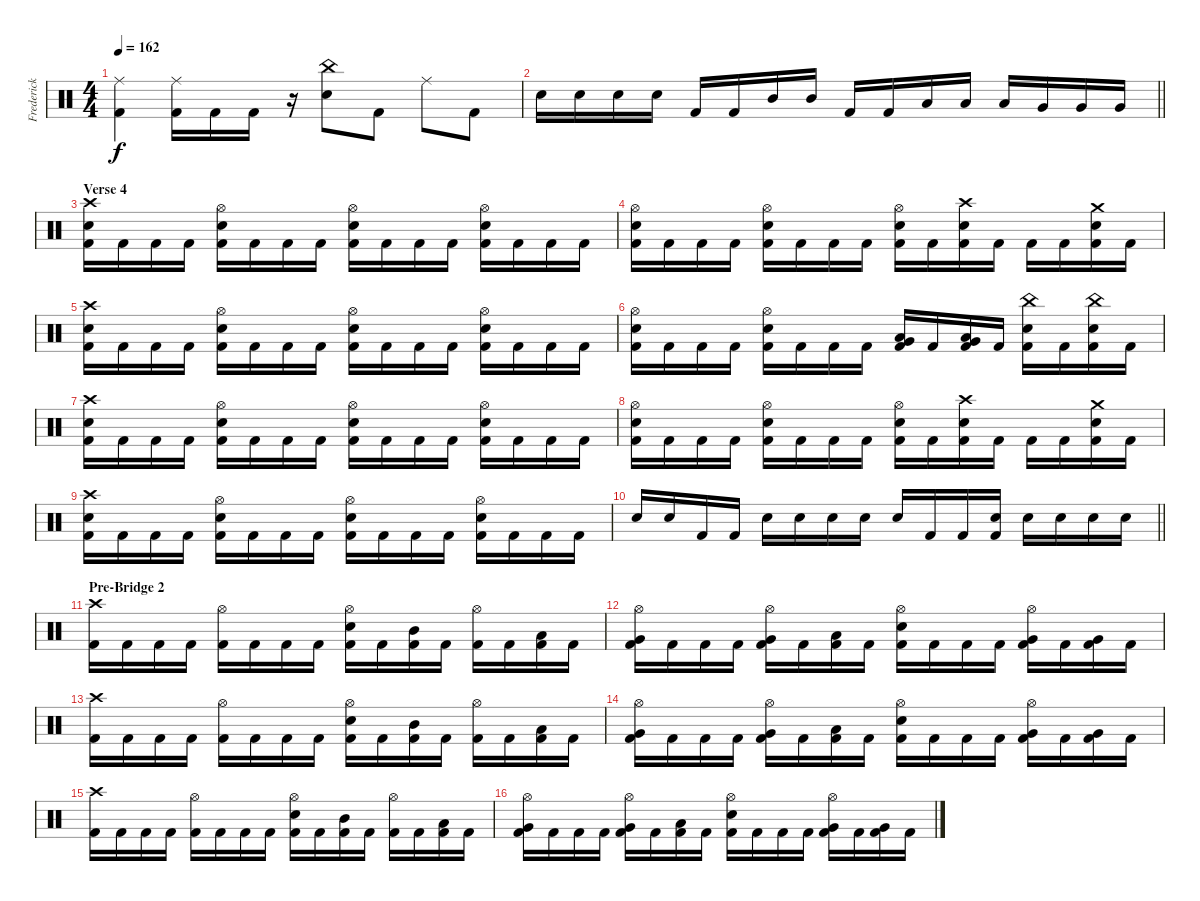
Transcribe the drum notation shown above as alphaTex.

\track ("Frederick Ehmke" "Frederick ") {instrument percussion}
\staff {score}
\articulation defaults
\ts (4 4)
\tempo 162
\clef neutral
\ks c
("Ride (middle)" "Kick (hit) 2").4{dy f} ("Ride (middle)" "Kick (hit) 2").16 "Kick (hit) 2".16 "Kick (hit) 2".16 r.16 ("Electric Snare (hit)" "China (hit)").8 "Kick (hit) 2".8 "Ride (middle)".8 "Kick (hit) 2".8 |
\barLineRight lightlight "Electric Snare (hit)".16 "Electric Snare (hit)".16{volume 10} "Electric Snare (hit)".16{volume 13} "Electric Snare (hit)".16{volume 10} "Kick (hit) 2".16{volume 13} "Kick (hit) 2".16 "Mid Tom (hit)".16 "Mid Tom (hit)".16 "Kick (hit) 2".16 "Kick (hit) 2".16 "Low Tom (hit)".16 "Low Tom (hit)".16 "Low Tom (hit)".16 "Very Low Tom (hit)".16 "Very Low Tom (hit)".16 "Very Low Tom (hit)".16
|
\section ("" "Verse 4")
("Electric Snare (hit)" "Crash high (hit)" "Kick (hit) 2").16 "Kick (hit) 2".16 "Kick (hit) 2".16 "Kick (hit) 2".16 ("Electric Snare (hit)" "Hi-Hat (open)" "Kick (hit) 2").16 "Kick (hit) 2".16 "Kick (hit) 2".16 "Kick (hit) 2".16 ("Electric Snare (hit)" "Hi-Hat (open)" "Kick (hit) 2").16 "Kick (hit) 2".16 "Kick (hit) 2".16 "Kick (hit) 2".16 ("Electric Snare (hit)" "Hi-Hat (open)" "Kick (hit) 2").16 "Kick (hit) 2".16 "Kick (hit) 2".16 "Kick (hit) 2".16 |
("Electric Snare (hit)" "Hi-Hat (open)" "Kick (hit) 2").16 "Kick (hit) 2".16 "Kick (hit) 2".16 "Kick (hit) 2".16 ("Electric Snare (hit)" "Hi-Hat (open)" "Kick (hit) 2").16 "Kick (hit) 2".16 "Kick (hit) 2".16 "Kick (hit) 2".16 ("Electric Snare (hit)" "Hi-Hat (open)" "Kick (hit) 2").16 "Kick (hit) 2".16 ("Electric Snare (hit)" "Crash high (hit)" "Kick (hit) 2").16 "Kick (hit) 2".16 "Kick (hit) 2".16 "Kick (hit) 2".16 ("Electric Snare (hit)" "Crash medium (hit)" "Kick (hit) 2").16 "Kick (hit) 2".16 |
("Electric Snare (hit)" "Crash high (hit)" "Kick (hit) 2").16 "Kick (hit) 2".16 "Kick (hit) 2".16 "Kick (hit) 2".16 ("Electric Snare (hit)" "Hi-Hat (open)" "Kick (hit) 2").16 "Kick (hit) 2".16 "Kick (hit) 2".16 "Kick (hit) 2".16 ("Electric Snare (hit)" "Hi-Hat (open)" "Kick (hit) 2").16 "Kick (hit) 2".16 "Kick (hit) 2".16 "Kick (hit) 2".16 ("Electric Snare (hit)" "Hi-Hat (open)" "Kick (hit) 2").16 "Kick (hit) 2".16 "Kick (hit) 2".16 "Kick (hit) 2".16 |
("Electric Snare (hit)" "Hi-Hat (open)" "Kick (hit) 2").16 "Kick (hit) 2".16 "Kick (hit) 2".16 "Kick (hit) 2".16 ("Electric Snare (hit)" "Hi-Hat (open)" "Kick (hit) 2").16 "Kick (hit) 2".16 "Kick (hit) 2".16 "Kick (hit) 2".16 ("Low Tom (hit)" "Very Low Tom (hit)" "Kick (hit) 2").16 "Kick (hit) 2".16 ("Low Tom (hit)" "Very Low Tom (hit)" "Kick (hit) 2").16 "Kick (hit) 2".16 ("Electric Snare (hit)" "China (hit)" "Kick (hit) 2").16 "Kick (hit) 2".16 ("Electric Snare (hit)" "China (hit)" "Kick (hit) 2").16 "Kick (hit) 2".16 |
("Electric Snare (hit)" "Crash high (hit)" "Kick (hit) 2").16 "Kick (hit) 2".16 "Kick (hit) 2".16 "Kick (hit) 2".16 ("Electric Snare (hit)" "Hi-Hat (open)" "Kick (hit) 2").16 "Kick (hit) 2".16 "Kick (hit) 2".16 "Kick (hit) 2".16 ("Electric Snare (hit)" "Hi-Hat (open)" "Kick (hit) 2").16 "Kick (hit) 2".16 "Kick (hit) 2".16 "Kick (hit) 2".16 ("Electric Snare (hit)" "Hi-Hat (open)" "Kick (hit) 2").16 "Kick (hit) 2".16 "Kick (hit) 2".16 "Kick (hit) 2".16 |
("Electric Snare (hit)" "Hi-Hat (open)" "Kick (hit) 2").16 "Kick (hit) 2".16 "Kick (hit) 2".16 "Kick (hit) 2".16 ("Electric Snare (hit)" "Hi-Hat (open)" "Kick (hit) 2").16 "Kick (hit) 2".16 "Kick (hit) 2".16 "Kick (hit) 2".16 ("Electric Snare (hit)" "Hi-Hat (open)" "Kick (hit) 2").16 "Kick (hit) 2".16 ("Electric Snare (hit)" "Crash high (hit)" "Kick (hit) 2").16 "Kick (hit) 2".16 "Kick (hit) 2".16 "Kick (hit) 2".16 ("Electric Snare (hit)" "Crash medium (hit)" "Kick (hit) 2").16 "Kick (hit) 2".16 |
("Electric Snare (hit)" "Crash high (hit)" "Kick (hit) 2").16 "Kick (hit) 2".16 "Kick (hit) 2".16 "Kick (hit) 2".16 ("Electric Snare (hit)" "Hi-Hat (open)" "Kick (hit) 2").16 "Kick (hit) 2".16 "Kick (hit) 2".16 "Kick (hit) 2".16 ("Electric Snare (hit)" "Hi-Hat (open)" "Kick (hit) 2").16 "Kick (hit) 2".16 "Kick (hit) 2".16 "Kick (hit) 2".16 ("Electric Snare (hit)" "Hi-Hat (open)" "Kick (hit) 2").16 "Kick (hit) 2".16 "Kick (hit) 2".16 "Kick (hit) 2".16 |
\barLineRight lightlight "Electric Snare (hit)".16 "Electric Snare (hit)".16 "Kick (hit) 2".16 "Kick (hit) 2".16 "Electric Snare (hit)".16 "Electric Snare (hit)".16 "Electric Snare (hit)".16 "Electric Snare (hit)".16 "Electric Snare (hit)".16 "Kick (hit) 2".16 "Kick (hit) 2".16
("Electric Snare (hit)" "Kick (hit) 2").16 "Electric Snare (hit)".16 "Electric Snare (hit)".16 "Electric Snare (hit)".16 "Electric Snare (hit)".16 |
\section ("" "Pre-Bridge 2")
("Crash high (hit)" "Kick (hit) 2").16 "Kick (hit) 2".16 "Kick (hit) 2".16 "Kick (hit) 2".16 ("Hi-Hat (open)" "Kick (hit) 2").16 "Kick (hit) 2".16 "Kick (hit) 2".16 "Kick (hit) 2".16 ("Electric Snare (hit)" "Hi-Hat (open)" "Kick (hit) 2").16 "Kick (hit) 2".16 ("Mid Tom (hit)" "Kick (hit) 2").16 "Kick (hit) 2".16 ("Hi-Hat (open)" "Kick (hit) 2").16 "Kick (hit) 2".16 ("Low Tom (hit)" "Kick (hit) 2").16 "Kick (hit) 2".16 |
("Very Low Tom (hit)" "Hi-Hat (open)" "Kick (hit) 2").16 "Kick (hit) 2".16 "Kick (hit) 2".16 "Kick (hit) 2".16 ("Very Low Tom (hit)" "Hi-Hat (open)" "Kick (hit) 2").16 "Kick (hit) 2".16 ("Low Floor Tom (hit)" "Kick (hit) 2").16 "Kick (hit) 2".16 ("Electric Snare (hit)" "Hi-Hat (open)" "Kick (hit) 2").16 "Kick (hit) 2".16 "Kick (hit) 2".16 "Kick (hit) 2".16 ("Very Low Tom (hit)" "Hi-Hat (open)" "Kick (hit) 2").16 "Kick (hit) 2".16 ("Very Low Tom (hit)" "Kick (hit) 2").16 "Kick (hit) 2".16 |
("Crash high (hit)" "Kick (hit) 2").16 "Kick (hit) 2".16 "Kick (hit) 2".16 "Kick (hit) 2".16 ("Hi-Hat (open)" "Kick (hit) 2").16 "Kick (hit) 2".16 "Kick (hit) 2".16 "Kick (hit) 2".16 ("Electric Snare (hit)" "Hi-Hat (open)" "Kick (hit) 2").16 "Kick (hit) 2".16 ("Mid Tom (hit)" "Kick (hit) 2").16 "Kick (hit) 2".16 ("Hi-Hat (open)" "Kick (hit) 2").16 "Kick (hit) 2".16 ("Low Tom (hit)" "Kick (hit) 2").16 "Kick (hit) 2".16 |
("Very Low Tom (hit)" "Hi-Hat (open)" "Kick (hit) 2").16 "Kick (hit) 2".16 "Kick (hit) 2".16 "Kick (hit) 2".16 ("Very Low Tom (hit)" "Hi-Hat (open)" "Kick (hit) 2").16 "Kick (hit) 2".16 ("Low Floor Tom (hit)" "Kick (hit) 2").16 "Kick (hit) 2".16 ("Electric Snare (hit)" "Hi-Hat (open)" "Kick (hit) 2").16 "Kick (hit) 2".16 "Kick (hit) 2".16 "Kick (hit) 2".16 ("Very Low Tom (hit)" "Hi-Hat (open)" "Kick (hit) 2").16 "Kick (hit) 2".16 ("Very Low Tom (hit)" "Kick (hit) 2").16 "Kick (hit) 2".16 |
("Crash high (hit)" "Kick (hit) 2").16 "Kick (hit) 2".16 "Kick (hit) 2".16 "Kick (hit) 2".16 ("Hi-Hat (open)" "Kick (hit) 2").16 "Kick (hit) 2".16 "Kick (hit) 2".16 "Kick (hit) 2".16 ("Electric Snare (hit)" "Hi-Hat (open)" "Kick (hit) 2").16 "Kick (hit) 2".16 ("Mid Tom (hit)" "Kick (hit) 2").16 "Kick (hit) 2".16 ("Hi-Hat (open)" "Kick (hit) 2").16 "Kick (hit) 2".16 ("Low Tom (hit)" "Kick (hit) 2").16 "Kick (hit) 2".16 |
("Very Low Tom (hit)" "Hi-Hat (open)" "Kick (hit) 2").16 "Kick (hit) 2".16 "Kick (hit) 2".16 "Kick (hit) 2".16 ("Very Low Tom (hit)" "Hi-Hat (open)" "Kick (hit) 2").16 "Kick (hit) 2".16 ("Low Floor Tom (hit)" "Kick (hit) 2").16 "Kick (hit) 2".16 ("Electric Snare (hit)" "Hi-Hat (open)" "Kick (hit) 2").16 "Kick (hit) 2".16 "Kick (hit) 2".16 "Kick (hit) 2".16 ("Very Low Tom (hit)" "Hi-Hat (open)" "Kick (hit) 2").16 "Kick (hit) 2".16 ("Very Low Tom (hit)" "Kick (hit) 2").16 "Kick (hit) 2".16
